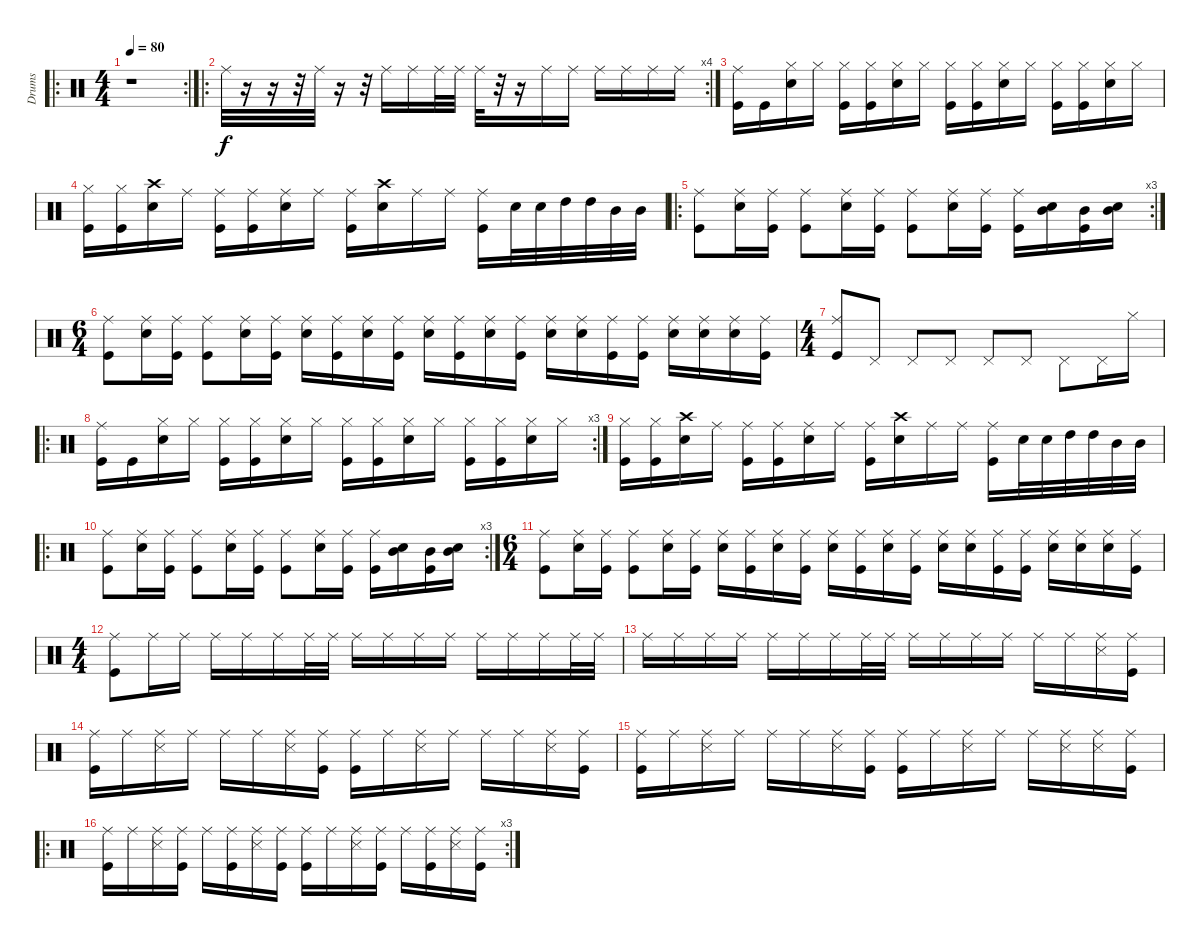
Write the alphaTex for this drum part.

\track ("Drums" "Drums") {instrument percussion}
\staff {score}
\articulation defaults
\ro
\rc 2
\ts (4 4)
\tempo 80
\clef neutral
\ks c
r.1{dy f} |
\ro
\rc 4 "Ride (middle)".32
r.16 r.16 r.32 "Ride (middle)".32 r.16 r.32 "Ride (middle)".16 "Ride (middle)".16 "Ride (middle)".32 "Ride (middle)".32 "Ride (middle)".32 r.32 r.16 "Ride (middle)".16 "Ride (middle)".16 "Ride (middle)".16 "Ride (middle)".16 "Ride (middle)".16 "Ride (middle)".16 |
("Ride (middle)" "Kick (hit)").16 "Kick (hit)".16 ("Hi-Hat (closed)" "Snare (hit) 2").16 "Hi-Hat (closed)".16 ("Hi-Hat (closed)" "Kick (hit)").16 ("Hi-Hat (closed)" "Kick (hit)").16 ("Hi-Hat (closed)" "Snare (hit) 2").16 "Hi-Hat (closed)".16 ("Hi-Hat (closed)" "Kick (hit)").16 ("Hi-Hat (closed)" "Kick (hit)").16 ("Hi-Hat (closed)" "Snare (hit) 2").16 "Hi-Hat (closed)".16 ("Hi-Hat (closed)" "Kick (hit)").16 ("Hi-Hat (closed)" "Kick (hit)").16 ("Hi-Hat (closed)" "Snare (hit) 2").16 "Hi-Hat (closed)".16 |
("Hi-Hat (closed)" "Kick (hit)").16 ("Hi-Hat (closed)" "Kick (hit)").16 ("Crash high (hit)" "Snare (hit) 2").16 "Ride (middle)".16 ("Ride (middle)" "Kick (hit)").16 ("Ride (middle)" "Kick (hit)").16 ("Ride (middle)" "Snare (hit) 2").16 "Ride (middle)".16 ("Ride (middle)" "Kick (hit)").16 ("Crash high (hit)" "Snare (hit) 2").16 "Ride (middle)".16 "Ride (middle)".16 ("Ride (middle)" "Kick (hit)").16 "Snare (hit) 2".32 "Snare (hit) 2".32 "High Tom (hit)".32 "High Tom (hit)".32 "Mid Tom (hit)".32 "Mid Tom (hit)".32 |
\ro
\rc 3
("Ride (middle)" "Kick (hit)").8 ("Ride (middle)" "Snare (hit) 2").16 ("Ride (middle)" "Kick (hit)").16 ("Ride (middle)" "Kick (hit)").8 ("Ride (middle)" "Snare (hit) 2").16 ("Ride (middle)" "Kick (hit)").16 ("Ride (middle)" "Kick (hit)").8 ("Ride (middle)" "Snare (hit) 2").16 ("Ride (middle)" "Kick (hit)").16 ("Ride (middle)" "Kick (hit)").16 ("Snare (hit) 2" "Mid Tom (hit)").16 ("Mid Tom (hit)" "Kick (hit)").16 ("Snare (hit) 2" "Mid Tom (hit)").16 |
\ts (6 4)
("Ride (middle)" "Kick (hit)").8 ("Ride (middle)" "Snare (hit) 2").16 ("Ride (middle)" "Kick (hit)").16 ("Ride (middle)" "Kick (hit)").8 ("Ride (middle)" "Snare (hit) 2").16 ("Ride (middle)" "Kick (hit)").16 ("Ride (middle)" "Snare (hit) 2").16 ("Ride (middle)" "Kick (hit)").16 ("Ride (middle)" "Snare (hit) 2").16 ("Ride (middle)" "Kick (hit)").16 ("Ride (middle)" "Snare (hit) 2").16 ("Ride (middle)" "Kick (hit)").16 ("Ride (middle)" "Snare (hit) 2").16 ("Ride (middle)" "Kick (hit)").16 ("Ride (middle)" "Snare (hit) 2").16 ("Ride (middle)" "Snare (hit) 2").16 ("Ride (middle)" "Kick (hit)").16 ("Ride (middle)" "Kick (hit)").16 ("Ride (middle)" "Snare (hit) 2").16 ("Ride (middle)" "Snare (hit) 2").16 ("Ride (middle)" "Snare (hit) 2").16 ("Ride (middle)" "Kick (hit)").16 |
\ts (4 4)
("Ride (middle)" "Kick (hit)").8 "Pedal Hi-Hat (hit)".8 "Pedal Hi-Hat (hit)".8 "Pedal Hi-Hat (hit)".8 "Pedal Hi-Hat (hit)".8 "Pedal Hi-Hat (hit)".8 "Pedal Hi-Hat (hit)".8 "Pedal Hi-Hat (hit)".16 "Hi-Hat (closed)".16 |
\ro
\rc 3
("Ride (middle)" "Kick (hit)").16 "Kick (hit)".16 ("Hi-Hat (closed)" "Snare (hit) 2").16 "Hi-Hat (closed)".16 ("Hi-Hat (closed)" "Kick (hit)").16 ("Hi-Hat (closed)" "Kick (hit)").16 ("Hi-Hat (closed)" "Snare (hit) 2").16 "Hi-Hat (closed)".16 ("Hi-Hat (closed)" "Kick (hit)").16 ("Hi-Hat (closed)" "Kick (hit)").16 ("Hi-Hat (closed)" "Snare (hit) 2").16 "Hi-Hat (closed)".16 ("Hi-Hat (closed)" "Kick (hit)").16 ("Hi-Hat (closed)" "Kick (hit)").16 ("Hi-Hat (closed)" "Snare (hit) 2").16 "Hi-Hat (closed)".16 |
("Hi-Hat (closed)" "Kick (hit)").16 ("Hi-Hat (closed)" "Kick (hit)").16 ("Crash high (hit)" "Snare (hit) 2").16 "Ride (middle)".16 ("Ride (middle)" "Kick (hit)").16 ("Ride (middle)" "Kick (hit)").16 ("Ride (middle)" "Snare (hit) 2").16 "Ride (middle)".16 ("Ride (middle)" "Kick (hit)").16 ("Crash high (hit)" "Snare (hit) 2").16 "Ride (middle)".16 "Ride (middle)".16 ("Ride (middle)" "Kick (hit)").16 "Snare (hit) 2".32 "Snare (hit) 2".32 "High Tom (hit)".32 "High Tom (hit)".32 "Mid Tom (hit)".32 "Mid Tom (hit)".32 |
\ro
\rc 3
("Ride (middle)" "Kick (hit)").8 ("Ride (middle)" "Snare (hit) 2").16 ("Ride (middle)" "Kick (hit)").16 ("Ride (middle)" "Kick (hit)").8 ("Ride (middle)" "Snare (hit) 2").16 ("Ride (middle)" "Kick (hit)").16 ("Ride (middle)" "Kick (hit)").8 ("Ride (middle)" "Snare (hit) 2").16 ("Ride (middle)" "Kick (hit)").16 ("Ride (middle)" "Kick (hit)").16 ("Snare (hit) 2" "Mid Tom (hit)").16 ("Mid Tom (hit)" "Kick (hit)").16 ("Snare (hit) 2" "Mid Tom (hit)").16 |
\ts (6 4)
("Ride (middle)" "Kick (hit)").8 ("Ride (middle)" "Snare (hit) 2").16 ("Ride (middle)" "Kick (hit)").16 ("Ride (middle)" "Kick (hit)").8 ("Ride (middle)" "Snare (hit) 2").16 ("Ride (middle)" "Kick (hit)").16 ("Ride (middle)" "Snare (hit) 2").16 ("Ride (middle)" "Kick (hit)").16 ("Ride (middle)" "Snare (hit) 2").16 ("Ride (middle)" "Kick (hit)").16 ("Ride (middle)" "Snare (hit) 2").16 ("Ride (middle)" "Kick (hit)").16 ("Ride (middle)" "Snare (hit) 2").16 ("Ride (middle)" "Kick (hit)").16 ("Ride (middle)" "Snare (hit) 2").16 ("Ride (middle)" "Snare (hit) 2").16 ("Ride (middle)" "Kick (hit)").16 ("Ride (middle)" "Kick (hit)").16 ("Ride (middle)" "Snare (hit) 2").16 ("Ride (middle)" "Snare (hit) 2").16 ("Ride (middle)" "Snare (hit) 2").16 ("Ride (middle)" "Kick (hit)").16 |
\ts (4 4)
("Ride (middle)" "Kick (hit)").8 "Ride (middle)".16 "Ride (middle)".16 "Ride (middle)".16 "Ride (middle)".16 "Ride (middle)".16 "Ride (middle)".32 "Ride (middle)".32 "Ride (middle)".16 "Ride (middle)".16 "Ride (middle)".16 "Ride (middle)".16 "Ride (middle)".16 "Ride (middle)".16 "Ride (middle)".16 "Ride (middle)".32 "Ride (middle)".32 |
"Ride (middle)".16 "Ride (middle)".16 "Ride (middle)".16 "Ride (middle)".16 "Ride (middle)".16 "Ride (middle)".16 "Ride (middle)".16 "Ride (middle)".32 "Ride (middle)".32 "Ride (middle)".16 "Ride (middle)".16 "Ride (middle)".16 "Ride (middle)".16 "Ride (middle)".16 "Ride (middle)".16 ("Ride (middle)" "Snare (side stick) 3").16 ("Ride (middle)" "Kick (hit)").16 |
("Ride (middle)" "Kick (hit)").16 "Ride (middle)".16 ("Ride (middle)" "Snare (side stick) 3").16 "Ride (middle)".16 "Ride (middle)".16 "Ride (middle)".16 ("Ride (middle)" "Snare (side stick) 3").16 ("Ride (middle)" "Kick (hit)").16 ("Ride (middle)" "Kick (hit)").16 "Ride (middle)".16 ("Ride (middle)" "Snare (side stick) 3").16 "Ride (middle)".16 "Ride (middle)".16 "Ride (middle)".16 ("Ride (middle)" "Snare (side stick) 3").16 ("Ride (middle)" "Kick (hit)").16 |
("Ride (middle)" "Kick (hit)").16 "Ride (middle)".16 ("Ride (middle)" "Snare (side stick) 3").16 "Ride (middle)".16 "Ride (middle)".16 "Ride (middle)".16 ("Ride (middle)" "Snare (side stick) 3").16 ("Ride (middle)" "Kick (hit)").16 ("Ride (middle)" "Kick (hit)").16 "Ride (middle)".16 ("Ride (middle)" "Snare (side stick) 3").16 "Ride (middle)".16 "Ride (middle)".16 ("Ride (middle)" "Snare (side stick) 3").16 ("Ride (middle)" "Snare (side stick) 3").16 ("Ride (middle)" "Kick (hit)").16 |
\ro
\rc 3
("Ride (middle)" "Kick (hit)").16 "Ride (middle)".16 ("Ride (middle)" "Snare (side stick) 3").16 ("Ride (middle)" "Kick (hit)").16 "Ride (middle)".16 ("Ride (middle)" "Kick (hit)").16 ("Ride (middle)" "Snare (side stick) 3").16 ("Ride (middle)" "Kick (hit)").16 ("Ride (middle)" "Kick (hit)").16 "Ride (middle)".16 ("Ride (middle)" "Snare (side stick) 3").16 ("Ride (middle)" "Kick (hit)").16 "Ride (middle)".16 ("Ride (middle)" "Kick (hit)").16 ("Ride (middle)" "Snare (side stick) 3").16 ("Ride (middle)" "Kick (hit)").16
